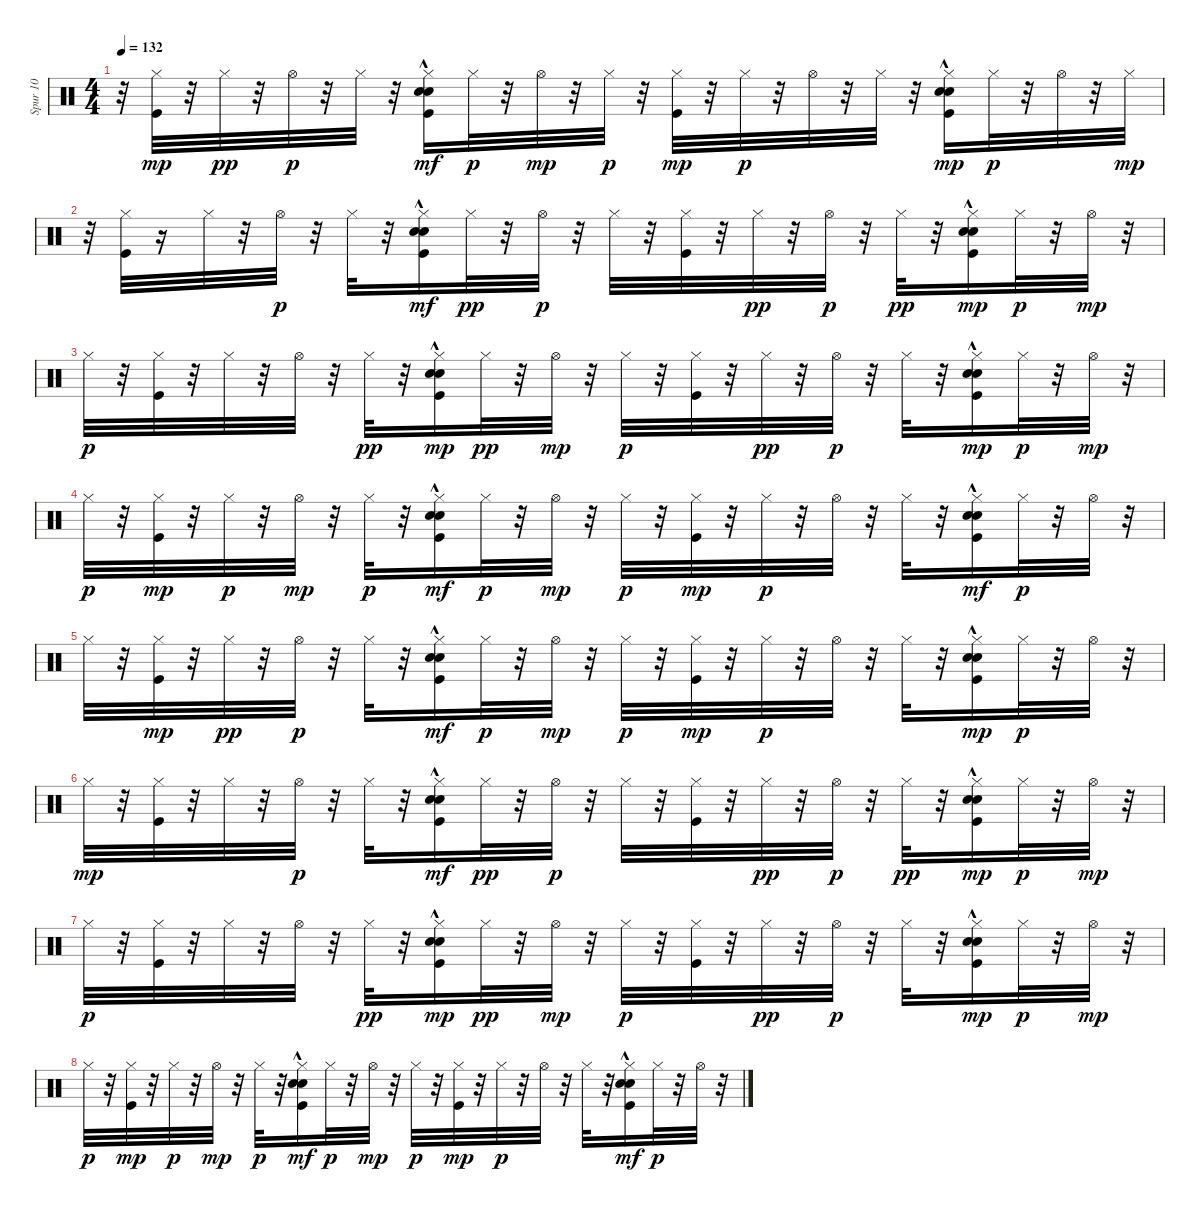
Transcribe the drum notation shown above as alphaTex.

\track ("Spur 10" "Spur 10") {instrument percussion}
\staff {score}
\articulation defaults
\ts (4 4)
\tempo 132
\clef neutral
\ks c
r.32{dy p} ("Hi-Hat (closed)" "Kick (hit)").32{dy mp} r.32 "Hi-Hat (closed)".32{dy pp} r.32 "Hi-Hat (open)".32{dy p} r.32 "Hi-Hat (closed)".32 r.32 ("Hi-Hat (closed)" "Snare (hit) 2" "Kick (hit)" "Hand Clap (hit)"{hac}).16{dy mf} "Hi-Hat (closed)".32{dy p} r.32 "Hi-Hat (open)".32{dy mp} r.32 "Hi-Hat (closed)".32{dy p} r.32 ("Hi-Hat (closed)" "Kick (hit)").32{dy mp} r.32 "Hi-Hat (closed)".32{dy p} r.32 "Hi-Hat (open)".32 r.32 "Hi-Hat (closed)".32 r.32 ("Hi-Hat (closed)" "Kick (hit)" "Snare (hit) 2" "Hand Clap (hit)"{hac}).16{dy mp} "Hi-Hat (closed)".32{dy p} r.32 "Hi-Hat (open)".32 r.32 "Hi-Hat (closed)".32{dy mp} |
r.32 ("Kick (hit)" "Hi-Hat (closed)").32 r.16 "Hi-Hat (closed)".32 r.32 "Hi-Hat (open)".32{dy p} r.32 "Hi-Hat (closed)".32 r.32 ("Hi-Hat (closed)" "Snare (hit) 2" "Kick (hit)" "Hand Clap (hit)"{hac}).16{dy mf} "Hi-Hat (closed)".32{dy pp} r.32 "Hi-Hat (open)".32{dy p} r.32 "Hi-Hat (closed)".32 r.32 ("Hi-Hat (closed)" "Kick (hit)").32 r.32 "Hi-Hat (closed)".32{dy pp} r.32 "Hi-Hat (open)".32{dy p} r.32 "Hi-Hat (closed)".32{dy pp} r.32 ("Hi-Hat (closed)" "Kick (hit)" "Snare (hit) 2" "Hand Clap (hit)"{hac}).16{dy mp} "Hi-Hat (closed)".32{dy p} r.32 "Hi-Hat (open)".32{dy mp} r.32 |
"Hi-Hat (closed)".32{dy p} r.32 ("Hi-Hat (closed)" "Kick (hit)").32 r.32 "Hi-Hat (closed)".32 r.32 "Hi-Hat (open)".32 r.32 "Hi-Hat (closed)".32{dy pp} r.32 ("Hi-Hat (closed)" "Kick (hit)" "Snare (hit) 2" "Hand Clap (hit)"{hac}).16{dy mp} "Hi-Hat (closed)".32{dy pp} r.32 "Hi-Hat (open)".32{dy mp} r.32 "Hi-Hat (closed)".32{dy p} r.32 ("Hi-Hat (closed)" "Kick (hit)").32 r.32 "Hi-Hat (closed)".32{dy pp} r.32 "Hi-Hat (open)".32{dy p} r.32 "Hi-Hat (closed)".32 r.32 ("Hi-Hat (closed)" "Kick (hit)" "Snare (hit) 2" "Hand Clap (hit)"{hac}).16{dy mp} "Hi-Hat (closed)".32{dy p} r.32 "Hi-Hat (open)".32{dy mp} r.32 |
"Hi-Hat (closed)".32{dy p} r.32 ("Hi-Hat (closed)" "Kick (hit)").32{dy mp} r.32 "Hi-Hat (closed)".32{dy p} r.32 "Hi-Hat (open)".32{dy mp} r.32 "Hi-Hat (closed)".32{dy p} r.32 ("Hi-Hat (closed)" "Snare (hit) 2" "Kick (hit)" "Hand Clap (hit)"{hac}).16{dy mf} "Hi-Hat (closed)".32{dy p} r.32 "Hi-Hat (open)".32{dy mp} r.32 "Hi-Hat (closed)".32{dy p} r.32 ("Hi-Hat (closed)" "Kick (hit)").32{dy mp} r.32 "Hi-Hat (closed)".32{dy p} r.32 "Hi-Hat (open)".32 r.32 "Hi-Hat (closed)".32 r.32 ("Hi-Hat (closed)" "Snare (hit) 2" "Kick (hit)" "Hand Clap (hit)"{hac}).16{dy mf} "Hi-Hat (closed)".32{dy p} r.32 "Hi-Hat (open)".32 r.32 |
"Hi-Hat (closed)".32 r.32 ("Hi-Hat (closed)" "Kick (hit)").32{dy mp} r.32 "Hi-Hat (closed)".32{dy pp} r.32 "Hi-Hat (open)".32{dy p} r.32 "Hi-Hat (closed)".32 r.32 ("Hi-Hat (closed)" "Snare (hit) 2" "Kick (hit)" "Hand Clap (hit)"{hac}).16{dy mf} "Hi-Hat (closed)".32{dy p} r.32 "Hi-Hat (open)".32{dy mp} r.32 "Hi-Hat (closed)".32{dy p} r.32 ("Hi-Hat (closed)" "Kick (hit)").32{dy mp} r.32 "Hi-Hat (closed)".32{dy p} r.32 "Hi-Hat (open)".32 r.32 "Hi-Hat (closed)".32 r.32 ("Hi-Hat (closed)" "Kick (hit)" "Snare (hit) 2" "Hand Clap (hit)"{hac}).16{dy mp} "Hi-Hat (closed)".32{dy p} r.32 "Hi-Hat (open)".32 r.32 |
"Hi-Hat (closed)".32{dy mp} r.32 ("Kick (hit)" "Hi-Hat (closed)").32 r.32 "Hi-Hat (closed)".32 r.32 "Hi-Hat (open)".32{dy p} r.32 "Hi-Hat (closed)".32 r.32 ("Hi-Hat (closed)" "Snare (hit) 2" "Kick (hit)" "Hand Clap (hit)"{hac}).16{dy mf} "Hi-Hat (closed)".32{dy pp} r.32 "Hi-Hat (open)".32{dy p} r.32 "Hi-Hat (closed)".32 r.32 ("Hi-Hat (closed)" "Kick (hit)").32 r.32 "Hi-Hat (closed)".32{dy pp} r.32 "Hi-Hat (open)".32{dy p} r.32 "Hi-Hat (closed)".32{dy pp} r.32 ("Hi-Hat (closed)" "Kick (hit)" "Snare (hit) 2" "Hand Clap (hit)"{hac}).16{dy mp} "Hi-Hat (closed)".32{dy p} r.32 "Hi-Hat (open)".32{dy mp} r.32 |
"Hi-Hat (closed)".32{dy p} r.32 ("Hi-Hat (closed)" "Kick (hit)").32 r.32 "Hi-Hat (closed)".32 r.32 "Hi-Hat (open)".32 r.32 "Hi-Hat (closed)".32{dy pp} r.32 ("Hi-Hat (closed)" "Kick (hit)" "Snare (hit) 2" "Hand Clap (hit)"{hac}).16{dy mp} "Hi-Hat (closed)".32{dy pp} r.32 "Hi-Hat (open)".32{dy mp} r.32 "Hi-Hat (closed)".32{dy p} r.32 ("Hi-Hat (closed)" "Kick (hit)").32 r.32 "Hi-Hat (closed)".32{dy pp} r.32 "Hi-Hat (open)".32{dy p} r.32 "Hi-Hat (closed)".32 r.32 ("Hi-Hat (closed)" "Kick (hit)" "Snare (hit) 2" "Hand Clap (hit)"{hac}).16{dy mp} "Hi-Hat (closed)".32{dy p} r.32 "Hi-Hat (open)".32{dy mp} r.32 |
"Hi-Hat (closed)".32{dy p} r.32 ("Hi-Hat (closed)" "Kick (hit)").32{dy mp} r.32 "Hi-Hat (closed)".32{dy p} r.32 "Hi-Hat (open)".32{dy mp} r.32 "Hi-Hat (closed)".32{dy p} r.32 ("Hi-Hat (closed)" "Snare (hit) 2" "Kick (hit)" "Hand Clap (hit)"{hac}).16{dy mf} "Hi-Hat (closed)".32{dy p} r.32 "Hi-Hat (open)".32{dy mp} r.32 "Hi-Hat (closed)".32{dy p} r.32 ("Hi-Hat (closed)" "Kick (hit)").32{dy mp} r.32 "Hi-Hat (closed)".32{dy p} r.32 "Hi-Hat (open)".32 r.32 "Hi-Hat (closed)".32 r.32 ("Hi-Hat (closed)" "Snare (hit) 2" "Kick (hit)" "Hand Clap (hit)"{hac}).16{dy mf} "Hi-Hat (closed)".32{dy p} r.32 "Hi-Hat (open)".32 r.32
